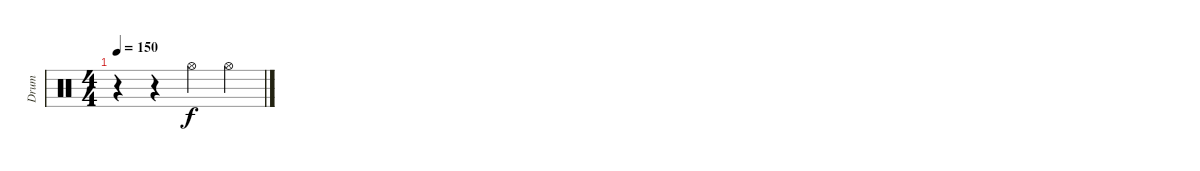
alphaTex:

\track ("Drum" "Drum") {instrument percussion}
\staff {score}
\articulation defaults
\ts (4 4)
\tempo 150
\clef neutral
\ks c
r.4{dy f} r.4 "Hi-Hat (open)".4 "Hi-Hat (open)".4
